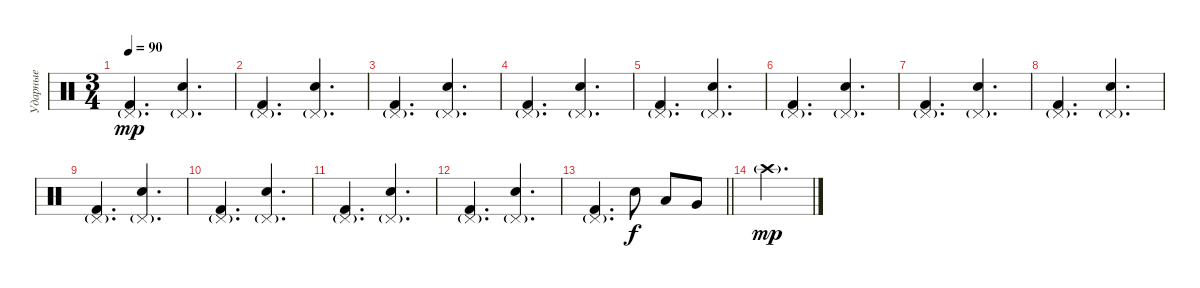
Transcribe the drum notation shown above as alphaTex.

\track ("Ударные" "Ударные") {instrument percussion}
\staff {score}
\articulation defaults
\ts (3 4)
\tempo 90
\clef neutral
\ks c
("Kick (hit) 2" "Pedal Hi-Hat (hit)"{g}).4{d dy mp} ("Electric Snare (hit)" "Pedal Hi-Hat (hit)"{g}).4{d} |
("Kick (hit) 2" "Pedal Hi-Hat (hit)"{g}).4{d} ("Electric Snare (hit)" "Pedal Hi-Hat (hit)"{g}).4{d} |
("Kick (hit) 2" "Pedal Hi-Hat (hit)"{g}).4{d} ("Electric Snare (hit)" "Pedal Hi-Hat (hit)"{g}).4{d} |
("Kick (hit) 2" "Pedal Hi-Hat (hit)"{g}).4{d} ("Electric Snare (hit)" "Pedal Hi-Hat (hit)"{g}).4{d} |
("Kick (hit) 2" "Pedal Hi-Hat (hit)"{g}).4{d} ("Electric Snare (hit)" "Pedal Hi-Hat (hit)"{g}).4{d} |
("Kick (hit) 2" "Pedal Hi-Hat (hit)"{g}).4{d} ("Electric Snare (hit)" "Pedal Hi-Hat (hit)"{g}).4{d} |
("Kick (hit) 2" "Pedal Hi-Hat (hit)"{g}).4{d} ("Electric Snare (hit)" "Pedal Hi-Hat (hit)"{g}).4{d} |
("Kick (hit) 2" "Pedal Hi-Hat (hit)"{g}).4{d} ("Electric Snare (hit)" "Pedal Hi-Hat (hit)"{g}).4{d} |
("Kick (hit) 2" "Pedal Hi-Hat (hit)"{g}).4{d} ("Electric Snare (hit)" "Pedal Hi-Hat (hit)"{g}).4{d} |
("Kick (hit) 2" "Pedal Hi-Hat (hit)"{g}).4{d} ("Electric Snare (hit)" "Pedal Hi-Hat (hit)"{g}).4{d} |
("Kick (hit) 2" "Pedal Hi-Hat (hit)"{g}).4{d} ("Electric Snare (hit)" "Pedal Hi-Hat (hit)"{g}).4{d} |
("Kick (hit) 2" "Pedal Hi-Hat (hit)"{g}).4{d} ("Electric Snare (hit)" "Pedal Hi-Hat (hit)"{g}).4{d} |
\barLineRight lightlight
("Kick (hit) 2" "Pedal Hi-Hat (hit)"{g}).4{d} "Electric Snare (hit)".8{dy f} "Low Tom (hit)".8 "Very Low Tom (hit)".8 |
"Crash high (hit)"{g}.2{d dy mp}
